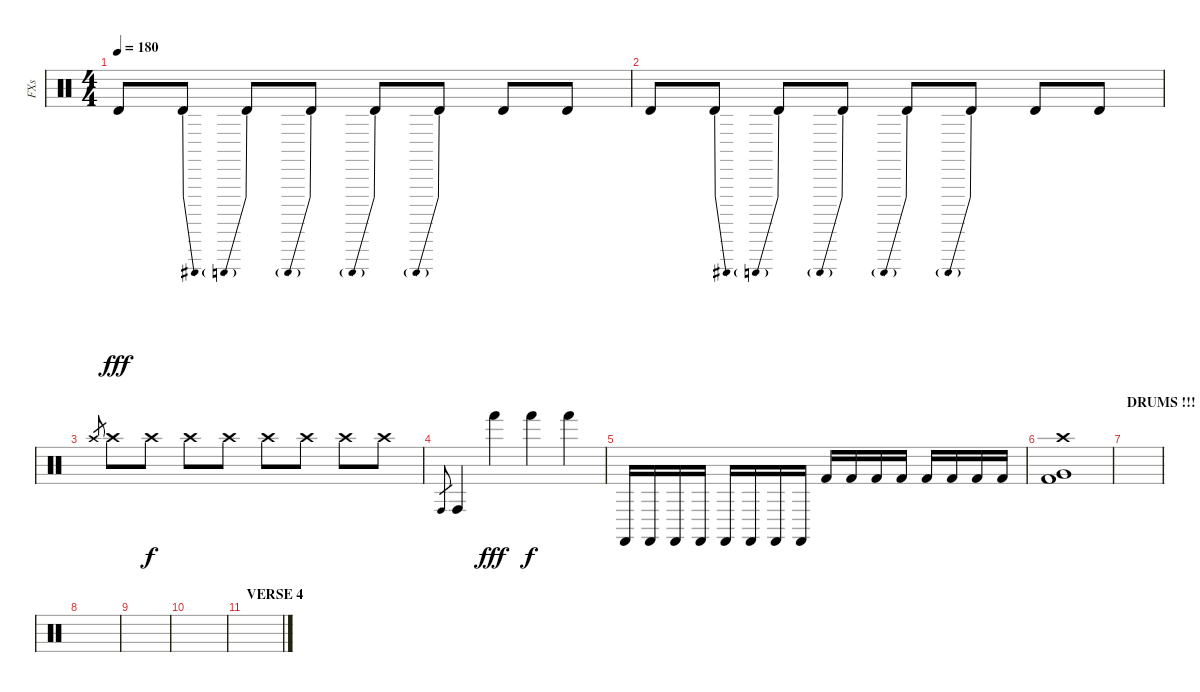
\track ("FXs" "FXs") {instrument percussion}
\staff {score}
\articulation defaults
\ts (4 4)
\tempo 180
\clef neutral
\ks c "Timbale high (hit)".8{dy fff} "Timbale high (hit)"{be (bend 0 0 60 2)}.8 "Timbale high (hit)"{be (prebend 0 2 60 2)}.8 "Timbale high (hit)"{be (prebend 0 4 60 4)}.8 "Timbale high (hit)"{be (prebend 0 6 60 6)}.8 "Timbale high (hit)"{be (prebend 0 4 60 4)}.8 "Timbale high (hit)"{be (custom 0 4 20 4 40 0 60 0)}.8 "Timbale high (hit)".8
|
"Timbale high (hit)".8 "Timbale high (hit)"{be (bend 0 0 60 2)}.8 "Timbale high (hit)"{be (prebend 0 2 60 2)}.8 "Timbale high (hit)"{be (prebend 0 4 60 4)}.8 "Timbale high (hit)"{be (prebend 0 6 60 6)}.8 "Timbale high (hit)"{be (prebend 0 4 60 4)}.8 "Timbale high (hit)"{be (custom 0 4 20 4 40 0 60 0)}.8 "Timbale high (hit)".8 |
"Crash high (hit)".8{gr} "Crash high (hit)".8 "Crash high (hit)".8{dy f} "Crash high (hit)".8 "Crash high (hit)".8 "Crash high (hit)".8 "Crash high (hit)".8 "Crash high (hit)".8 "Crash high (hit)".8 |
"Conga high (hit)".8{gr} "Conga high (hit)".4 "Hand (hit)"{be (custom 0 0 10 4 12 9 20 4 30 0 40 0 50 4 58 8 60 4)}.4{dy fff} "Hand (hit)".4{dy f} "Hand (hit)".4 |
"Castanets (hit)".16 "Castanets (hit)".16 "Castanets (hit)".16 "Castanets (hit)".16 "Castanets (hit)".16 "Castanets (hit)".16 "Castanets (hit)".16 "Castanets (hit)".16 "Kick (hit) 2".16 "Kick (hit) 2".16 "Kick (hit) 2".16 "Kick (hit) 2".16 "Kick (hit) 2".16 "Kick (hit) 2".16 "Kick (hit) 2".16 "Kick (hit) 2".16 |
("Crash high (hit)" "Very Low Tom (hit)" "Kick (hit) 2").1 |
\section ("" "DRUMS !!!")
|
|
|
|
\section ("" "VERSE 4")
